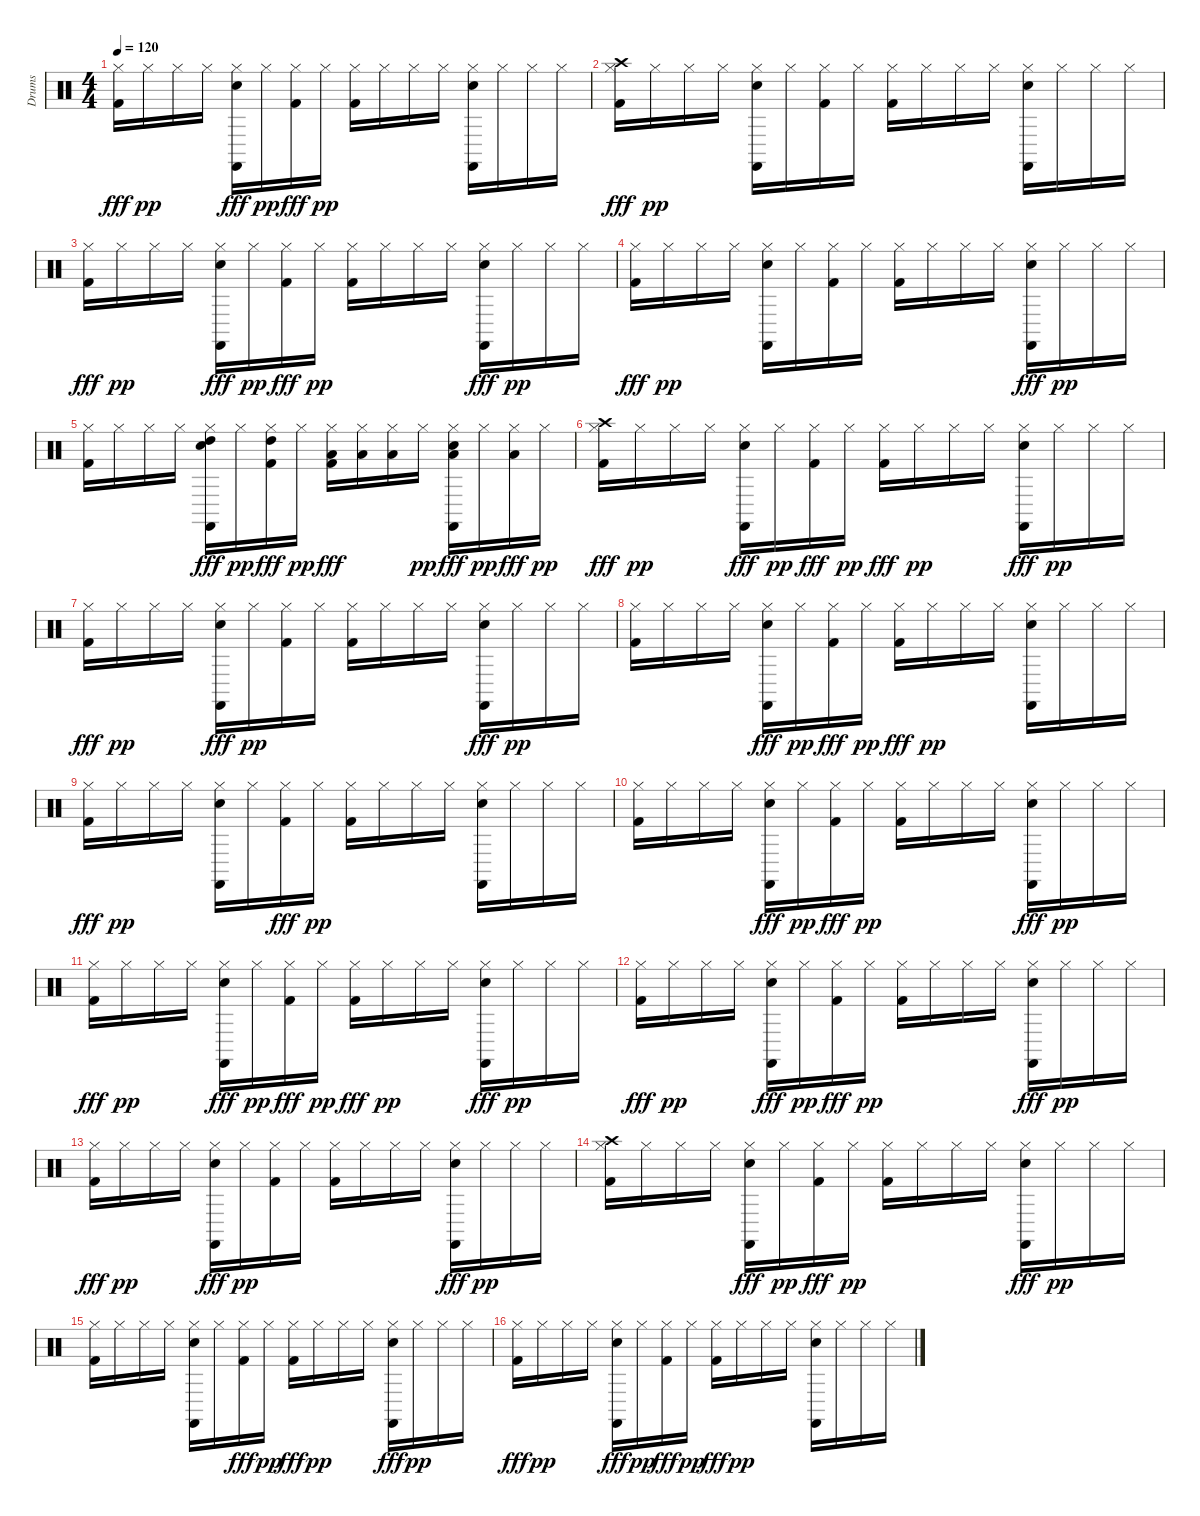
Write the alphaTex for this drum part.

\track ("Drums" "Drums") {instrument percussion}
\staff {score}
\articulation defaults
\ts (4 4)
\tempo 120
\clef neutral
\ks c
("Hi-Hat (closed)" "Kick (hit) 2").16{dy fff} "Hi-Hat (closed)".16{dy pp} "Hi-Hat (closed)".16 "Hi-Hat (closed)".16 ("Hi-Hat (closed)" "Castanets (hit)" "Snare (hit) 2").16{dy fff} "Hi-Hat (closed)".16{dy pp} ("Hi-Hat (closed)" "Kick (hit) 2").16{dy fff} "Hi-Hat (closed)".16{dy pp} ("Kick (hit) 2" "Hi-Hat (closed)").16 "Hi-Hat (closed)".16 "Hi-Hat (closed)".16 "Hi-Hat (closed)".16 ("Castanets (hit)" "Snare (hit) 2" "Hi-Hat (closed)").16 "Hi-Hat (closed)".16 "Hi-Hat (closed)".16 "Hi-Hat (closed)".16 |
("Crash high (hit)" "Hi-Hat (closed)" "Kick (hit) 2").16{dy fff} "Hi-Hat (closed)".16{dy pp} "Hi-Hat (closed)".16 "Hi-Hat (closed)".16 ("Castanets (hit)" "Snare (hit) 2" "Hi-Hat (closed)").16 "Hi-Hat (closed)".16 ("Kick (hit) 2" "Hi-Hat (closed)").16 "Hi-Hat (closed)".16 ("Kick (hit) 2" "Hi-Hat (closed)").16 "Hi-Hat (closed)".16 "Hi-Hat (closed)".16 "Hi-Hat (closed)".16 ("Castanets (hit)" "Snare (hit) 2" "Hi-Hat (closed)").16 "Hi-Hat (closed)".16 "Hi-Hat (closed)".16 "Hi-Hat (closed)".16 |
("Hi-Hat (closed)" "Kick (hit) 2").16{dy fff} "Hi-Hat (closed)".16{dy pp} "Hi-Hat (closed)".16 "Hi-Hat (closed)".16 ("Castanets (hit)" "Hi-Hat (closed)" "Snare (hit) 2").16{dy fff} "Hi-Hat (closed)".16{dy pp} ("Hi-Hat (closed)" "Kick (hit) 2").16{dy fff} "Hi-Hat (closed)".16{dy pp} ("Kick (hit) 2" "Hi-Hat (closed)").16 "Hi-Hat (closed)".16 "Hi-Hat (closed)".16 "Hi-Hat (closed)".16 ("Hi-Hat (closed)" "Snare (hit) 2" "Castanets (hit)").16{dy fff} "Hi-Hat (closed)".16{dy pp} "Hi-Hat (closed)".16 "Hi-Hat (closed)".16 |
("Hi-Hat (closed)" "Kick (hit) 2").16{dy fff} "Hi-Hat (closed)".16{dy pp} "Hi-Hat (closed)".16 "Hi-Hat (closed)".16 ("Snare (hit) 2" "Castanets (hit)" "Hi-Hat (closed)").16 "Hi-Hat (closed)".16 ("Kick (hit) 2" "Hi-Hat (closed)").16 "Hi-Hat (closed)".16 ("Kick (hit) 2" "Hi-Hat (closed)").16 "Hi-Hat (closed)".16 "Hi-Hat (closed)".16 "Hi-Hat (closed)".16 ("Snare (hit) 2" "Hi-Hat (closed)" "Castanets (hit)").16{dy fff} "Hi-Hat (closed)".16{dy pp} "Hi-Hat (closed)".16 "Hi-Hat (closed)".16 |
("Kick (hit) 2" "Hi-Hat (closed)").16 "Hi-Hat (closed)".16 "Hi-Hat (closed)".16 "Hi-Hat (closed)".16 ("Hi-Hat (closed)" "High Tom (hit)" "Snare (hit) 2" "Castanets (hit)").16{dy fff} "Hi-Hat (closed)".16{dy pp} ("High Tom (hit)" "Hi-Hat (closed)" "Kick (hit) 2").16{dy fff} "Hi-Hat (closed)".16{dy pp} ("Hi-Hat (closed)" "Low Tom (hit)" "Kick (hit) 2").16{dy fff} ("Hi-Hat (closed)" "Low Tom (hit)").16 ("Hi-Hat (closed)" "Low Tom (hit)").16 "Hi-Hat (closed)".16{dy pp} ("Castanets (hit)" "Snare (hit) 2" "Hi-Hat (closed)" "Low Floor Tom (hit)").16{dy fff} "Hi-Hat (closed)".16{dy pp} ("Hi-Hat (closed)" "Low Floor Tom (hit)").16{dy fff} "Hi-Hat (closed)".16{dy pp} |
("Kick (hit) 2" "Hi-Hat (closed)" "Crash high (hit)").16{dy fff} "Hi-Hat (closed)".16{dy pp} "Hi-Hat (closed)".16 "Hi-Hat (closed)".16 ("Snare (hit) 2" "Hi-Hat (closed)" "Castanets (hit)").16{dy fff} "Hi-Hat (closed)".16{dy pp} ("Hi-Hat (closed)" "Kick (hit) 2").16{dy fff} "Hi-Hat (closed)".16{dy pp} ("Hi-Hat (closed)" "Kick (hit) 2").16{dy fff} "Hi-Hat (closed)".16{dy pp} "Hi-Hat (closed)".16 "Hi-Hat (closed)".16 ("Snare (hit) 2" "Hi-Hat (closed)" "Castanets (hit)").16{dy fff} "Hi-Hat (closed)".16{dy pp} "Hi-Hat (closed)".16 "Hi-Hat (closed)".16 |
("Hi-Hat (closed)" "Kick (hit) 2").16{dy fff} "Hi-Hat (closed)".16{dy pp} "Hi-Hat (closed)".16 "Hi-Hat (closed)".16 ("Hi-Hat (closed)" "Castanets (hit)" "Snare (hit) 2").16{dy fff} "Hi-Hat (closed)".16{dy pp} ("Kick (hit) 2" "Hi-Hat (closed)").16 "Hi-Hat (closed)".16 ("Kick (hit) 2" "Hi-Hat (closed)").16 "Hi-Hat (closed)".16 "Hi-Hat (closed)".16 "Hi-Hat (closed)".16 ("Snare (hit) 2" "Hi-Hat (closed)" "Castanets (hit)").16{dy fff} "Hi-Hat (closed)".16{dy pp} "Hi-Hat (closed)".16 "Hi-Hat (closed)".16 |
("Kick (hit) 2" "Hi-Hat (closed)").16 "Hi-Hat (closed)".16 "Hi-Hat (closed)".16 "Hi-Hat (closed)".16 ("Hi-Hat (closed)" "Snare (hit) 2" "Castanets (hit)").16{dy fff} "Hi-Hat (closed)".16{dy pp} ("Hi-Hat (closed)" "Kick (hit) 2").16{dy fff} "Hi-Hat (closed)".16{dy pp} ("Hi-Hat (closed)" "Kick (hit) 2").16{dy fff} "Hi-Hat (closed)".16{dy pp} "Hi-Hat (closed)".16 "Hi-Hat (closed)".16 ("Snare (hit) 2" "Castanets (hit)" "Hi-Hat (closed)").16 "Hi-Hat (closed)".16 "Hi-Hat (closed)".16 "Hi-Hat (closed)".16 |
("Hi-Hat (closed)" "Kick (hit) 2").16{dy fff} "Hi-Hat (closed)".16{dy pp} "Hi-Hat (closed)".16 "Hi-Hat (closed)".16 ("Castanets (hit)" "Snare (hit) 2" "Hi-Hat (closed)").16 "Hi-Hat (closed)".16 ("Hi-Hat (closed)" "Kick (hit) 2").16{dy fff} "Hi-Hat (closed)".16{dy pp} ("Kick (hit) 2" "Hi-Hat (closed)").16 "Hi-Hat (closed)".16 "Hi-Hat (closed)".16 "Hi-Hat (closed)".16 ("Castanets (hit)" "Snare (hit) 2" "Hi-Hat (closed)").16 "Hi-Hat (closed)".16 "Hi-Hat (closed)".16 "Hi-Hat (closed)".16 |
("Kick (hit) 2" "Hi-Hat (closed)").16 "Hi-Hat (closed)".16 "Hi-Hat (closed)".16 "Hi-Hat (closed)".16 ("Hi-Hat (closed)" "Snare (hit) 2" "Castanets (hit)").16{dy fff} "Hi-Hat (closed)".16{dy pp} ("Hi-Hat (closed)" "Kick (hit) 2").16{dy fff} "Hi-Hat (closed)".16{dy pp} ("Kick (hit) 2" "Hi-Hat (closed)").16 "Hi-Hat (closed)".16 "Hi-Hat (closed)".16 "Hi-Hat (closed)".16 ("Hi-Hat (closed)" "Snare (hit) 2" "Castanets (hit)").16{dy fff} "Hi-Hat (closed)".16{dy pp} "Hi-Hat (closed)".16 "Hi-Hat (closed)".16 |
("Hi-Hat (closed)" "Kick (hit) 2").16{dy fff} "Hi-Hat (closed)".16{dy pp} "Hi-Hat (closed)".16 "Hi-Hat (closed)".16 ("Castanets (hit)" "Hi-Hat (closed)" "Snare (hit) 2").16{dy fff} "Hi-Hat (closed)".16{dy pp} ("Hi-Hat (closed)" "Kick (hit) 2").16{dy fff} "Hi-Hat (closed)".16{dy pp} ("Hi-Hat (closed)" "Kick (hit) 2").16{dy fff} "Hi-Hat (closed)".16{dy pp} "Hi-Hat (closed)".16 "Hi-Hat (closed)".16 ("Hi-Hat (closed)" "Castanets (hit)" "Snare (hit) 2").16{dy fff} "Hi-Hat (closed)".16{dy pp} "Hi-Hat (closed)".16 "Hi-Hat (closed)".16 |
("Hi-Hat (closed)" "Kick (hit) 2").16{dy fff} "Hi-Hat (closed)".16{dy pp} "Hi-Hat (closed)".16 "Hi-Hat (closed)".16 ("Hi-Hat (closed)" "Snare (hit) 2" "Castanets (hit)").16{dy fff} "Hi-Hat (closed)".16{dy pp} ("Hi-Hat (closed)" "Kick (hit) 2").16{dy fff} "Hi-Hat (closed)".16{dy pp} ("Kick (hit) 2" "Hi-Hat (closed)").16 "Hi-Hat (closed)".16 "Hi-Hat (closed)".16 "Hi-Hat (closed)".16 ("Snare (hit) 2" "Hi-Hat (closed)" "Castanets (hit)").16{dy fff} "Hi-Hat (closed)".16{dy pp} "Hi-Hat (closed)".16 "Hi-Hat (closed)".16 |
("Hi-Hat (closed)" "Kick (hit) 2").16{dy fff} "Hi-Hat (closed)".16{dy pp} "Hi-Hat (closed)".16 "Hi-Hat (closed)".16 ("Hi-Hat (closed)" "Castanets (hit)" "Snare (hit) 2").16{dy fff} "Hi-Hat (closed)".16{dy pp} ("Kick (hit) 2" "Hi-Hat (closed)").16 "Hi-Hat (closed)".16 ("Kick (hit) 2" "Hi-Hat (closed)").16 "Hi-Hat (closed)".16 "Hi-Hat (closed)".16 "Hi-Hat (closed)".16 ("Hi-Hat (closed)" "Snare (hit) 2" "Castanets (hit)").16{dy fff} "Hi-Hat (closed)".16{dy pp} "Hi-Hat (closed)".16 "Hi-Hat (closed)".16 |
("Crash high (hit)" "Kick (hit) 2" "Hi-Hat (closed)").16 "Hi-Hat (closed)".16 "Hi-Hat (closed)".16 "Hi-Hat (closed)".16 ("Snare (hit) 2" "Hi-Hat (closed)" "Castanets (hit)").16{dy fff} "Hi-Hat (closed)".16{dy pp} ("Hi-Hat (closed)" "Kick (hit) 2").16{dy fff} "Hi-Hat (closed)".16{dy pp} ("Kick (hit) 2" "Hi-Hat (closed)").16 "Hi-Hat (closed)".16 "Hi-Hat (closed)".16 "Hi-Hat (closed)".16 ("Castanets (hit)" "Hi-Hat (closed)" "Snare (hit) 2").16{dy fff} "Hi-Hat (closed)".16{dy pp} "Hi-Hat (closed)".16 "Hi-Hat (closed)".16 |
("Kick (hit) 2" "Hi-Hat (closed)").16 "Hi-Hat (closed)".16 "Hi-Hat (closed)".16 "Hi-Hat (closed)".16 ("Snare (hit) 2" "Castanets (hit)" "Hi-Hat (closed)").16 "Hi-Hat (closed)".16 ("Hi-Hat (closed)" "Kick (hit) 2").16{dy fff} "Hi-Hat (closed)".16{dy pp} ("Hi-Hat (closed)" "Kick (hit) 2").16{dy fff} "Hi-Hat (closed)".16{dy pp} "Hi-Hat (closed)".16 "Hi-Hat (closed)".16 ("Castanets (hit)" "Hi-Hat (closed)" "Snare (hit) 2").16{dy fff} "Hi-Hat (closed)".16{dy pp} "Hi-Hat (closed)".16 "Hi-Hat (closed)".16 |
("Hi-Hat (closed)" "Kick (hit) 2").16{dy fff} "Hi-Hat (closed)".16{dy pp} "Hi-Hat (closed)".16 "Hi-Hat (closed)".16 ("Castanets (hit)" "Hi-Hat (closed)" "Snare (hit) 2").16{dy fff} "Hi-Hat (closed)".16{dy pp} ("Hi-Hat (closed)" "Kick (hit) 2").16{dy fff} "Hi-Hat (closed)".16{dy pp} ("Hi-Hat (closed)" "Kick (hit) 2").16{dy fff} "Hi-Hat (closed)".16{dy pp} "Hi-Hat (closed)".16 "Hi-Hat (closed)".16 ("Castanets (hit)" "Snare (hit) 2" "Hi-Hat (closed)").16 "Hi-Hat (closed)".16 "Hi-Hat (closed)".16 "Hi-Hat (closed)".16
